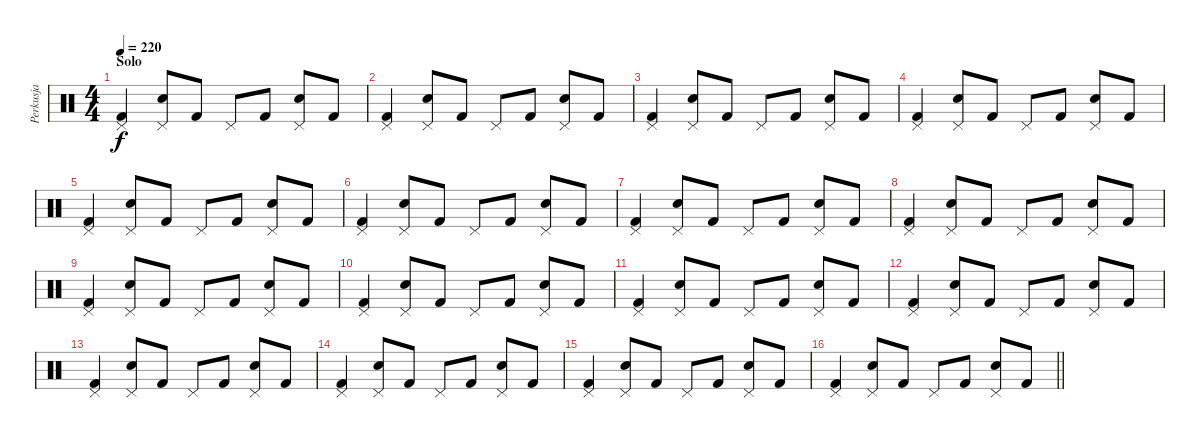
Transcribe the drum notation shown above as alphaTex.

\track ("Perkusja" "Perkusja") {instrument percussion}
\staff {score}
\articulation defaults
\ts (4 4)
\section ("" "Solo")
\tempo 220
\clef neutral
\ks c
("Pedal Hi-Hat (hit)" "Kick (hit) 2").4{dy f} ("Pedal Hi-Hat (hit)" "Snare (hit) 2").8 "Kick (hit) 2".8 "Pedal Hi-Hat (hit)".8 "Kick (hit) 2".8 ("Pedal Hi-Hat (hit)" "Snare (hit) 2").8 "Kick (hit) 2".8 |
("Pedal Hi-Hat (hit)" "Kick (hit) 2").4 ("Pedal Hi-Hat (hit)" "Snare (hit) 2").8 "Kick (hit) 2".8 "Pedal Hi-Hat (hit)".8 "Kick (hit) 2".8 ("Pedal Hi-Hat (hit)" "Snare (hit) 2").8 "Kick (hit) 2".8 |
("Pedal Hi-Hat (hit)" "Kick (hit) 2").4 ("Pedal Hi-Hat (hit)" "Snare (hit) 2").8 "Kick (hit) 2".8 "Pedal Hi-Hat (hit)".8 "Kick (hit) 2".8 ("Pedal Hi-Hat (hit)" "Snare (hit) 2").8 "Kick (hit) 2".8 |
("Pedal Hi-Hat (hit)" "Kick (hit) 2").4 ("Pedal Hi-Hat (hit)" "Snare (hit) 2").8 "Kick (hit) 2".8 "Pedal Hi-Hat (hit)".8 "Kick (hit) 2".8 ("Pedal Hi-Hat (hit)" "Snare (hit) 2").8 "Kick (hit) 2".8 |
("Pedal Hi-Hat (hit)" "Kick (hit) 2").4 ("Pedal Hi-Hat (hit)" "Snare (hit) 2").8 "Kick (hit) 2".8 "Pedal Hi-Hat (hit)".8 "Kick (hit) 2".8 ("Pedal Hi-Hat (hit)" "Snare (hit) 2").8 "Kick (hit) 2".8 |
("Pedal Hi-Hat (hit)" "Kick (hit) 2").4 ("Pedal Hi-Hat (hit)" "Snare (hit) 2").8 "Kick (hit) 2".8 "Pedal Hi-Hat (hit)".8 "Kick (hit) 2".8 ("Pedal Hi-Hat (hit)" "Snare (hit) 2").8 "Kick (hit) 2".8 |
("Pedal Hi-Hat (hit)" "Kick (hit) 2").4 ("Pedal Hi-Hat (hit)" "Snare (hit) 2").8 "Kick (hit) 2".8 "Pedal Hi-Hat (hit)".8 "Kick (hit) 2".8 ("Pedal Hi-Hat (hit)" "Snare (hit) 2").8 "Kick (hit) 2".8 |
("Pedal Hi-Hat (hit)" "Kick (hit) 2").4 ("Pedal Hi-Hat (hit)" "Snare (hit) 2").8 "Kick (hit) 2".8 "Pedal Hi-Hat (hit)".8 "Kick (hit) 2".8 ("Pedal Hi-Hat (hit)" "Snare (hit) 2").8 "Kick (hit) 2".8 |
("Pedal Hi-Hat (hit)" "Kick (hit) 2").4 ("Pedal Hi-Hat (hit)" "Snare (hit) 2").8 "Kick (hit) 2".8 "Pedal Hi-Hat (hit)".8 "Kick (hit) 2".8 ("Pedal Hi-Hat (hit)" "Snare (hit) 2").8 "Kick (hit) 2".8 |
("Pedal Hi-Hat (hit)" "Kick (hit) 2").4 ("Pedal Hi-Hat (hit)" "Snare (hit) 2").8 "Kick (hit) 2".8 "Pedal Hi-Hat (hit)".8 "Kick (hit) 2".8 ("Pedal Hi-Hat (hit)" "Snare (hit) 2").8 "Kick (hit) 2".8 |
("Pedal Hi-Hat (hit)" "Kick (hit) 2").4 ("Pedal Hi-Hat (hit)" "Snare (hit) 2").8 "Kick (hit) 2".8 "Pedal Hi-Hat (hit)".8 "Kick (hit) 2".8 ("Pedal Hi-Hat (hit)" "Snare (hit) 2").8 "Kick (hit) 2".8 |
("Pedal Hi-Hat (hit)" "Kick (hit) 2").4 ("Pedal Hi-Hat (hit)" "Snare (hit) 2").8 "Kick (hit) 2".8 "Pedal Hi-Hat (hit)".8 "Kick (hit) 2".8 ("Pedal Hi-Hat (hit)" "Snare (hit) 2").8 "Kick (hit) 2".8 |
("Pedal Hi-Hat (hit)" "Kick (hit) 2").4 ("Pedal Hi-Hat (hit)" "Snare (hit) 2").8 "Kick (hit) 2".8 "Pedal Hi-Hat (hit)".8 "Kick (hit) 2".8 ("Pedal Hi-Hat (hit)" "Snare (hit) 2").8 "Kick (hit) 2".8 |
("Pedal Hi-Hat (hit)" "Kick (hit) 2").4 ("Pedal Hi-Hat (hit)" "Snare (hit) 2").8 "Kick (hit) 2".8 "Pedal Hi-Hat (hit)".8 "Kick (hit) 2".8 ("Pedal Hi-Hat (hit)" "Snare (hit) 2").8 "Kick (hit) 2".8 |
("Pedal Hi-Hat (hit)" "Kick (hit) 2").4 ("Pedal Hi-Hat (hit)" "Snare (hit) 2").8 "Kick (hit) 2".8 "Pedal Hi-Hat (hit)".8 "Kick (hit) 2".8 ("Pedal Hi-Hat (hit)" "Snare (hit) 2").8 "Kick (hit) 2".8 |
\barLineRight lightlight
("Pedal Hi-Hat (hit)" "Kick (hit) 2").4 ("Pedal Hi-Hat (hit)" "Snare (hit) 2").8 "Kick (hit) 2".8 "Pedal Hi-Hat (hit)".8 "Kick (hit) 2".8 ("Pedal Hi-Hat (hit)" "Snare (hit) 2").8 "Kick (hit) 2".8
